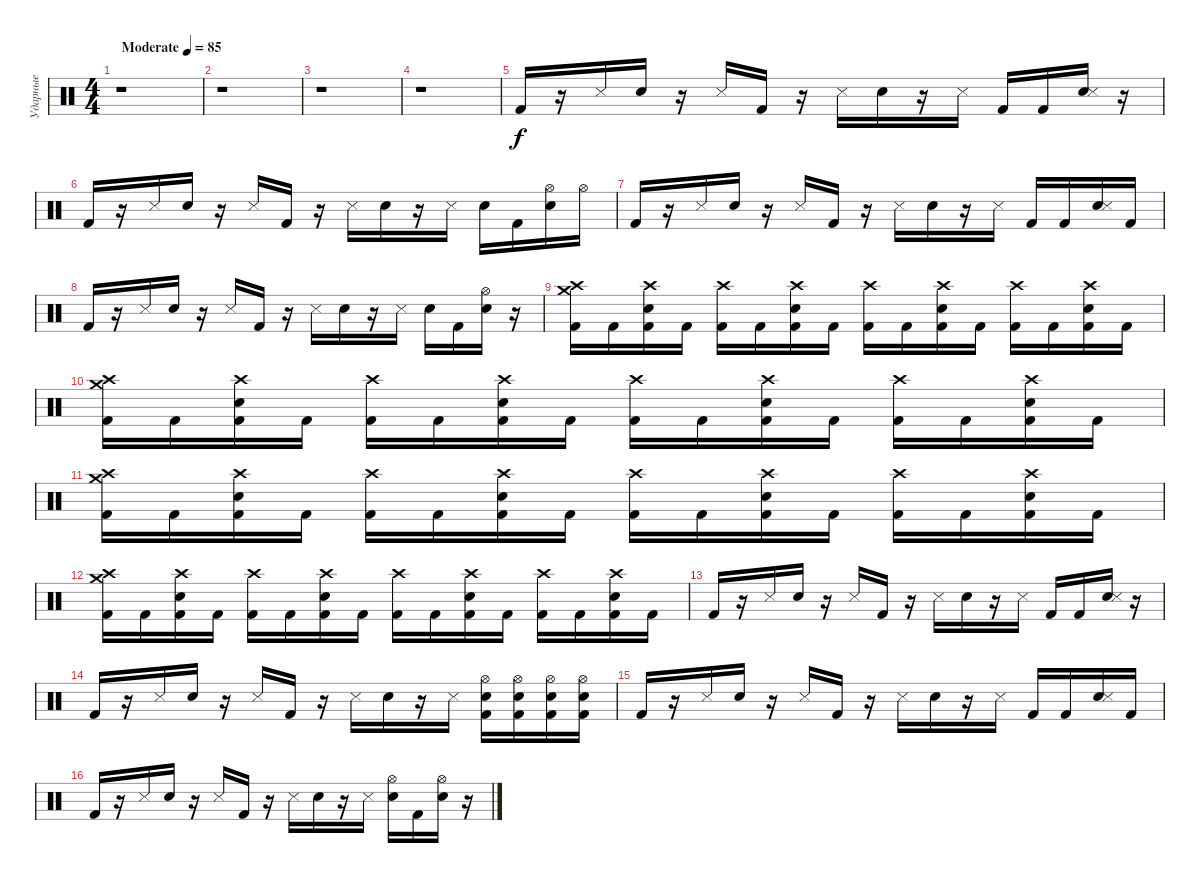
\track ("Ударные" "Ударные") {instrument percussion}
\staff {score}
\articulation defaults
\ts (4 4)
\tempo (85 "Moderate")
\clef neutral
\ks c
r.1{dy f} |
r.1 |
r.1 |
r.1 |
"Kick (hit) 2".16 r.16 "Snare (side stick) 3".16 "Electric Snare (hit)".16 r.16 "Snare (side stick) 3".16 "Kick (hit) 2".16 r.16 "Snare (side stick) 3".16 "Electric Snare (hit)".16 r.16 "Snare (side stick) 3".16 "Kick (hit) 2".16 "Kick (hit) 2".16 ("Electric Snare (hit)" "Snare (side stick) 3").16 r.16 |
"Kick (hit) 2".16 r.16 "Snare (side stick) 3".16 "Electric Snare (hit)".16 r.16 "Snare (side stick) 3".16 "Kick (hit) 2".16 r.16 "Snare (side stick) 3".16 "Electric Snare (hit)".16 r.16 "Snare (side stick) 3".16 "Electric Snare (hit)".16 "Kick (hit) 2".16 ("Electric Snare (hit)" "Hi-Hat (open)").16 "Hi-Hat (open)".16 |
"Kick (hit) 2".16 r.16 "Snare (side stick) 3".16 "Electric Snare (hit)".16 r.16 "Snare (side stick) 3".16 "Kick (hit) 2".16 r.16 "Snare (side stick) 3".16 "Electric Snare (hit)".16 r.16 "Snare (side stick) 3".16 "Kick (hit) 2".16 "Kick (hit) 2".16 ("Electric Snare (hit)" "Snare (side stick) 3").16 "Kick (hit) 2".16 |
"Kick (hit) 2".16 r.16 "Snare (side stick) 3".16 "Electric Snare (hit)".16 r.16 "Snare (side stick) 3".16 "Kick (hit) 2".16 r.16 "Snare (side stick) 3".16 "Electric Snare (hit)".16 r.16 "Snare (side stick) 3".16 "Electric Snare (hit)".16 "Kick (hit) 2".16 ("Electric Snare (hit)" "Hi-Hat (open)").16 r.16 |
("Crash medium (hit)" "Crash high (hit)" "Kick (hit) 2").16 "Kick (hit) 2".16 ("Electric Snare (hit)" "Crash high (hit)" "Kick (hit) 2").16 "Kick (hit) 2".16 ("Crash high (hit)" "Kick (hit) 2").16 "Kick (hit) 2".16 ("Electric Snare (hit)" "Crash high (hit)" "Kick (hit) 2").16 "Kick (hit) 2".16 ("Crash high (hit)" "Kick (hit) 2").16 "Kick (hit) 2".16 ("Electric Snare (hit)" "Crash high (hit)" "Kick (hit) 2").16 "Kick (hit) 2".16 ("Crash high (hit)" "Kick (hit) 2").16 "Kick (hit) 2".16 ("Electric Snare (hit)" "Crash high (hit)" "Kick (hit) 2").16 "Kick (hit) 2".16 |
("Crash medium (hit)" "Crash high (hit)" "Kick (hit) 2").16 "Kick (hit) 2".16 ("Electric Snare (hit)" "Crash high (hit)" "Kick (hit) 2").16 "Kick (hit) 2".16 ("Crash high (hit)" "Kick (hit) 2").16 "Kick (hit) 2".16 ("Electric Snare (hit)" "Crash high (hit)" "Kick (hit) 2").16 "Kick (hit) 2".16 ("Crash high (hit)" "Kick (hit) 2").16 "Kick (hit) 2".16 ("Electric Snare (hit)" "Crash high (hit)" "Kick (hit) 2").16 "Kick (hit) 2".16 ("Crash high (hit)" "Kick (hit) 2").16 "Kick (hit) 2".16 ("Electric Snare (hit)" "Crash high (hit)" "Kick (hit) 2").16 "Kick (hit) 2".16 |
("Crash medium (hit)" "Crash high (hit)" "Kick (hit) 2").16 "Kick (hit) 2".16 ("Electric Snare (hit)" "Crash high (hit)" "Kick (hit) 2").16 "Kick (hit) 2".16 ("Crash high (hit)" "Kick (hit) 2").16 "Kick (hit) 2".16 ("Electric Snare (hit)" "Crash high (hit)" "Kick (hit) 2").16 "Kick (hit) 2".16 ("Crash high (hit)" "Kick (hit) 2").16 "Kick (hit) 2".16 ("Electric Snare (hit)" "Crash high (hit)" "Kick (hit) 2").16 "Kick (hit) 2".16 ("Crash high (hit)" "Kick (hit) 2").16 "Kick (hit) 2".16 ("Electric Snare (hit)" "Crash high (hit)" "Kick (hit) 2").16 "Kick (hit) 2".16 |
("Crash medium (hit)" "Crash high (hit)" "Kick (hit) 2").16 "Kick (hit) 2".16 ("Electric Snare (hit)" "Crash high (hit)" "Kick (hit) 2").16 "Kick (hit) 2".16 ("Crash high (hit)" "Kick (hit) 2").16 "Kick (hit) 2".16 ("Electric Snare (hit)" "Crash high (hit)" "Kick (hit) 2").16 "Kick (hit) 2".16 ("Crash high (hit)" "Kick (hit) 2").16 "Kick (hit) 2".16 ("Electric Snare (hit)" "Crash high (hit)" "Kick (hit) 2").16 "Kick (hit) 2".16 ("Crash high (hit)" "Kick (hit) 2").16 "Kick (hit) 2".16 ("Electric Snare (hit)" "Crash high (hit)" "Kick (hit) 2").16 "Kick (hit) 2".16 |
"Kick (hit) 2".16 r.16 "Snare (side stick) 3".16 "Electric Snare (hit)".16 r.16 "Snare (side stick) 3".16 "Kick (hit) 2".16 r.16 "Snare (side stick) 3".16 "Electric Snare (hit)".16 r.16 "Snare (side stick) 3".16 "Kick (hit) 2".16 "Kick (hit) 2".16 ("Electric Snare (hit)" "Snare (side stick) 3").16 r.16 |
"Kick (hit) 2".16 r.16 "Snare (side stick) 3".16 "Electric Snare (hit)".16 r.16 "Snare (side stick) 3".16 "Kick (hit) 2".16 r.16 "Snare (side stick) 3".16 "Electric Snare (hit)".16 r.16 "Snare (side stick) 3".16 ("Electric Snare (hit)" "Hi-Hat (open)" "Kick (hit) 2").16 ("Electric Snare (hit)" "Hi-Hat (open)" "Kick (hit) 2").16 ("Electric Snare (hit)" "Hi-Hat (open)" "Kick (hit) 2").16 ("Electric Snare (hit)" "Hi-Hat (open)" "Kick (hit) 2").16 |
"Kick (hit) 2".16 r.16 "Snare (side stick) 3".16 "Electric Snare (hit)".16 r.16 "Snare (side stick) 3".16 "Kick (hit) 2".16 r.16 "Snare (side stick) 3".16 "Electric Snare (hit)".16 r.16 "Snare (side stick) 3".16 "Kick (hit) 2".16 "Kick (hit) 2".16 ("Electric Snare (hit)" "Snare (side stick) 3").16 "Kick (hit) 2".16 |
"Kick (hit) 2".16 r.16 "Snare (side stick) 3".16 "Electric Snare (hit)".16 r.16 "Snare (side stick) 3".16 "Kick (hit) 2".16 r.16 "Snare (side stick) 3".16 "Electric Snare (hit)".16 r.16 "Snare (side stick) 3".16 ("Electric Snare (hit)" "Hi-Hat (open)").16 "Kick (hit) 2".16 ("Electric Snare (hit)" "Hi-Hat (open)").16 r.16
